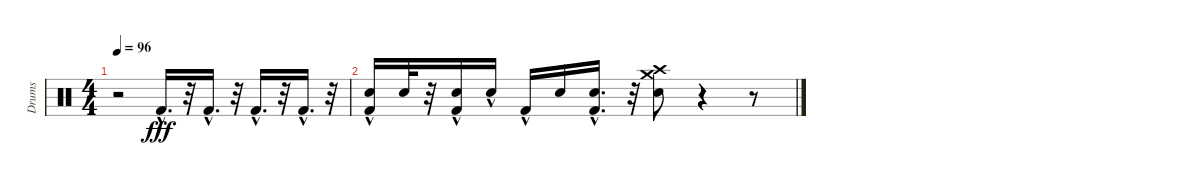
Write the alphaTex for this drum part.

\track ("Drums" "Drums") {instrument percussion}
\staff {score}
\articulation defaults
\ts (4 4)
\tempo 96
\clef neutral
\ks c
r.2{dy fff} "Kick (hit) 2"{hac}.16{d} r.32 "Kick (hit) 2"{hac}.16{d} r.32 "Kick (hit) 2"{hac}.16{d} r.32 "Kick (hit) 2"{hac}.16{d} r.32 |
("Snare (hit) 2" "Kick (hit) 2"{hac}).16 "Snare (hit) 2".32 r.32 ("Snare (hit) 2" "Kick (hit) 2"{hac}).16 "Snare (hit) 2"{hac}.16 "Kick (hit) 2"{hac}.16 "Snare (hit) 2".16 ("Snare (hit) 2"{hac} "Kick (hit) 2"{hac}).16{d} r.32 ("Crash high (hit)" "Crash medium (hit)" "Snare (hit) 2").8 r.4 r.8
